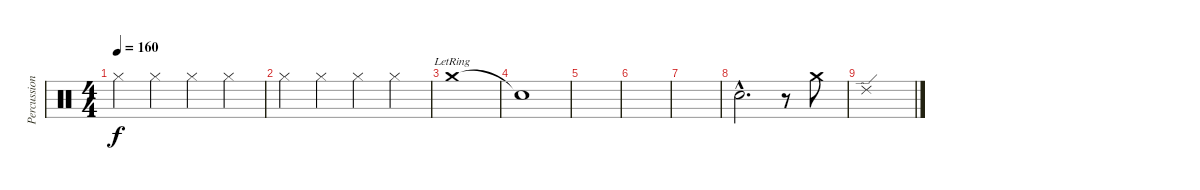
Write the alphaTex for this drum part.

\track ("Percussions" "Percussion") {instrument percussion}
\staff {score}
\articulation defaults
\ts (4 4)
\tempo 160
\clef neutral
\ks c "Hi-Hat (closed)".4{dy f} "Hi-Hat (closed)".4 "Hi-Hat (closed)".4 "Hi-Hat (closed)".4
|
"Hi-Hat (closed)".4 "Hi-Hat (closed)".4 "Hi-Hat (closed)".4 "Hi-Hat (closed)".4 |
"Crash medium (hit)"{lr}.1 |
"Snare (hit)"{t}.1 |
|
|
|
"Snare (hit)"{hac}.2{d} r.8 "Crash medium (hit)".8 |
"Ride (edge) 2".1
